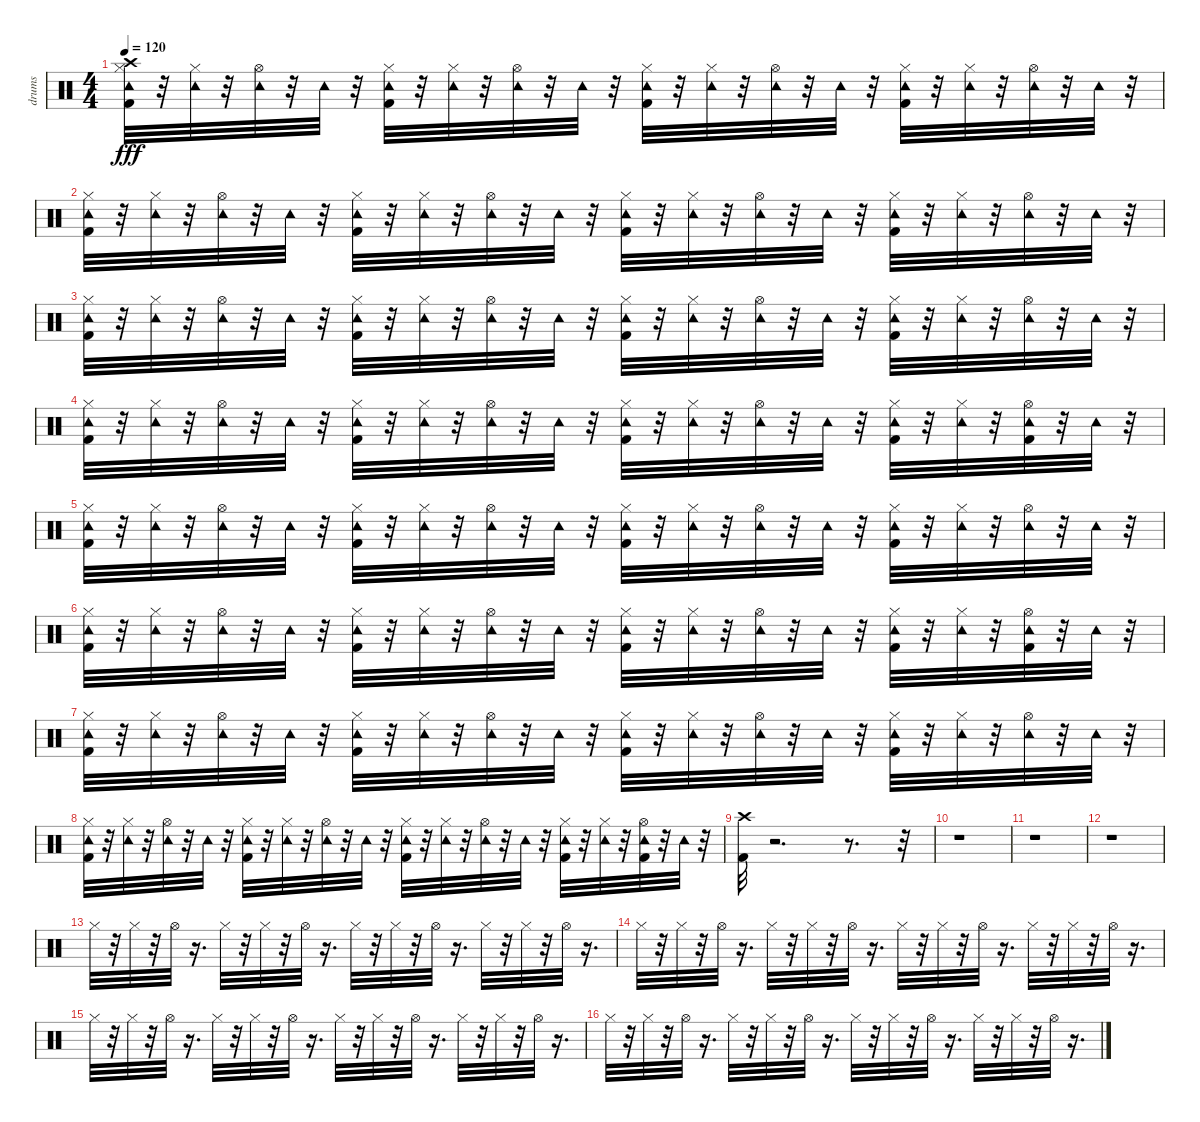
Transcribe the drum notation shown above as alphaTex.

\track ("drums" "drums") {instrument percussion}
\staff {score}
\articulation defaults
\ts (4 4)
\tempo 120
\clef neutral
\ks c
("Crash high (hit)" "Kick (hit) 2" "Hi-Hat (closed)" "Tambourine (hit)").32{dy fff} r.32 ("Hi-Hat (closed)" "Tambourine (hit)").32 r.32 ("Hi-Hat (open)" "Tambourine (hit)").32 r.32 "Tambourine (hit)".32 r.32 ("Kick (hit) 2" "Hi-Hat (closed)" "Tambourine (hit)").32 r.32 ("Hi-Hat (closed)" "Tambourine (hit)").32 r.32 ("Hi-Hat (open)" "Tambourine (hit)").32 r.32 "Tambourine (hit)".32 r.32 ("Kick (hit) 2" "Hi-Hat (closed)" "Tambourine (hit)").32 r.32 ("Hi-Hat (closed)" "Tambourine (hit)").32 r.32 ("Hi-Hat (open)" "Tambourine (hit)").32 r.32 "Tambourine (hit)".32 r.32 ("Kick (hit) 2" "Hi-Hat (closed)" "Tambourine (hit)").32 r.32 ("Hi-Hat (closed)" "Tambourine (hit)").32 r.32 ("Hi-Hat (open)" "Tambourine (hit)").32 r.32 "Tambourine (hit)".32 r.32 |
("Kick (hit) 2" "Hi-Hat (closed)" "Tambourine (hit)").32 r.32 ("Hi-Hat (closed)" "Tambourine (hit)").32 r.32 ("Hi-Hat (open)" "Tambourine (hit)").32 r.32 "Tambourine (hit)".32 r.32 ("Kick (hit) 2" "Hi-Hat (closed)" "Tambourine (hit)").32 r.32 ("Hi-Hat (closed)" "Tambourine (hit)").32 r.32 ("Hi-Hat (open)" "Tambourine (hit)").32 r.32 "Tambourine (hit)".32 r.32 ("Kick (hit) 2" "Hi-Hat (closed)" "Tambourine (hit)").32 r.32 ("Hi-Hat (closed)" "Tambourine (hit)").32 r.32 ("Hi-Hat (open)" "Tambourine (hit)").32 r.32 "Tambourine (hit)".32 r.32 ("Kick (hit) 2" "Hi-Hat (closed)" "Tambourine (hit)").32 r.32 ("Hi-Hat (closed)" "Tambourine (hit)").32 r.32 ("Hi-Hat (open)" "Tambourine (hit)").32 r.32 "Tambourine (hit)".32 r.32 |
("Kick (hit) 2" "Hi-Hat (closed)" "Tambourine (hit)").32 r.32 ("Hi-Hat (closed)" "Tambourine (hit)").32 r.32 ("Hi-Hat (open)" "Tambourine (hit)").32 r.32 "Tambourine (hit)".32 r.32 ("Kick (hit) 2" "Hi-Hat (closed)" "Tambourine (hit)").32 r.32 ("Hi-Hat (closed)" "Tambourine (hit)").32 r.32 ("Hi-Hat (open)" "Tambourine (hit)").32 r.32 "Tambourine (hit)".32 r.32 ("Kick (hit) 2" "Hi-Hat (closed)" "Tambourine (hit)").32 r.32 ("Hi-Hat (closed)" "Tambourine (hit)").32 r.32 ("Hi-Hat (open)" "Tambourine (hit)").32 r.32 "Tambourine (hit)".32 r.32 ("Kick (hit) 2" "Hi-Hat (closed)" "Tambourine (hit)").32 r.32 ("Hi-Hat (closed)" "Tambourine (hit)").32 r.32 ("Hi-Hat (open)" "Tambourine (hit)").32 r.32 "Tambourine (hit)".32 r.32 |
("Kick (hit) 2" "Hi-Hat (closed)" "Tambourine (hit)").32 r.32 ("Hi-Hat (closed)" "Tambourine (hit)").32 r.32 ("Hi-Hat (open)" "Tambourine (hit)").32 r.32 "Tambourine (hit)".32 r.32 ("Kick (hit) 2" "Hi-Hat (closed)" "Tambourine (hit)").32 r.32 ("Hi-Hat (closed)" "Tambourine (hit)").32 r.32 ("Hi-Hat (open)" "Tambourine (hit)").32 r.32 "Tambourine (hit)".32 r.32 ("Kick (hit) 2" "Hi-Hat (closed)" "Tambourine (hit)").32 r.32 ("Hi-Hat (closed)" "Tambourine (hit)").32 r.32 ("Hi-Hat (open)" "Tambourine (hit)").32 r.32 "Tambourine (hit)".32 r.32 ("Kick (hit) 2" "Hi-Hat (closed)" "Tambourine (hit)").32 r.32 ("Hi-Hat (closed)" "Tambourine (hit)").32 r.32 ("Kick (hit) 2" "Hi-Hat (open)" "Tambourine (hit)").32 r.32 "Tambourine (hit)".32 r.32 |
("Kick (hit) 2" "Hi-Hat (closed)" "Tambourine (hit)").32 r.32 ("Hi-Hat (closed)" "Tambourine (hit)").32 r.32 ("Hi-Hat (open)" "Tambourine (hit)").32 r.32 "Tambourine (hit)".32 r.32 ("Kick (hit) 2" "Hi-Hat (closed)" "Tambourine (hit)").32 r.32 ("Hi-Hat (closed)" "Tambourine (hit)").32 r.32 ("Hi-Hat (open)" "Tambourine (hit)").32 r.32 "Tambourine (hit)".32 r.32 ("Kick (hit) 2" "Hi-Hat (closed)" "Tambourine (hit)").32 r.32 ("Hi-Hat (closed)" "Tambourine (hit)").32 r.32 ("Hi-Hat (open)" "Tambourine (hit)").32 r.32 "Tambourine (hit)".32 r.32 ("Kick (hit) 2" "Hi-Hat (closed)" "Tambourine (hit)").32 r.32 ("Hi-Hat (closed)" "Tambourine (hit)").32 r.32 ("Hi-Hat (open)" "Tambourine (hit)").32 r.32 "Tambourine (hit)".32 r.32 |
("Kick (hit) 2" "Hi-Hat (closed)" "Tambourine (hit)").32 r.32 ("Hi-Hat (closed)" "Tambourine (hit)").32 r.32 ("Hi-Hat (open)" "Tambourine (hit)").32 r.32 "Tambourine (hit)".32 r.32 ("Kick (hit) 2" "Hi-Hat (closed)" "Tambourine (hit)").32 r.32 ("Hi-Hat (closed)" "Tambourine (hit)").32 r.32 ("Hi-Hat (open)" "Tambourine (hit)").32 r.32 "Tambourine (hit)".32 r.32 ("Kick (hit) 2" "Hi-Hat (closed)" "Tambourine (hit)").32 r.32 ("Hi-Hat (closed)" "Tambourine (hit)").32 r.32 ("Hi-Hat (open)" "Tambourine (hit)").32 r.32 "Tambourine (hit)".32 r.32 ("Kick (hit) 2" "Hi-Hat (closed)" "Tambourine (hit)").32 r.32 ("Hi-Hat (closed)" "Tambourine (hit)").32 r.32 ("Kick (hit) 2" "Hi-Hat (open)" "Tambourine (hit)").32 r.32 "Tambourine (hit)".32 r.32 |
("Kick (hit) 2" "Hi-Hat (closed)" "Tambourine (hit)").32 r.32 ("Hi-Hat (closed)" "Tambourine (hit)").32 r.32 ("Hi-Hat (open)" "Tambourine (hit)").32 r.32 "Tambourine (hit)".32 r.32 ("Kick (hit) 2" "Hi-Hat (closed)" "Tambourine (hit)").32 r.32 ("Hi-Hat (closed)" "Tambourine (hit)").32 r.32 ("Hi-Hat (open)" "Tambourine (hit)").32 r.32 "Tambourine (hit)".32 r.32 ("Kick (hit) 2" "Hi-Hat (closed)" "Tambourine (hit)").32 r.32 ("Hi-Hat (closed)" "Tambourine (hit)").32 r.32 ("Hi-Hat (open)" "Tambourine (hit)").32 r.32 "Tambourine (hit)".32 r.32 ("Kick (hit) 2" "Hi-Hat (closed)" "Tambourine (hit)").32 r.32 ("Hi-Hat (closed)" "Tambourine (hit)").32 r.32 ("Hi-Hat (open)" "Tambourine (hit)").32 r.32 "Tambourine (hit)".32 r.32 |
("Kick (hit) 2" "Hi-Hat (closed)" "Tambourine (hit)").32 r.32 ("Hi-Hat (closed)" "Tambourine (hit)").32 r.32 ("Hi-Hat (open)" "Tambourine (hit)").32 r.32 "Tambourine (hit)".32 r.32 ("Kick (hit) 2" "Hi-Hat (closed)" "Tambourine (hit)").32 r.32 ("Hi-Hat (closed)" "Tambourine (hit)").32 r.32 ("Hi-Hat (open)" "Tambourine (hit)").32 r.32 "Tambourine (hit)".32 r.32 ("Kick (hit) 2" "Hi-Hat (closed)" "Tambourine (hit)").32 r.32 ("Hi-Hat (closed)" "Tambourine (hit)").32 r.32 ("Hi-Hat (open)" "Tambourine (hit)").32 r.32 "Tambourine (hit)".32 r.32 ("Kick (hit) 2" "Hi-Hat (closed)" "Tambourine (hit)").32 r.32 ("Hi-Hat (closed)" "Tambourine (hit)").32 r.32 ("Kick (hit) 2" "Hi-Hat (open)" "Tambourine (hit)").32 r.32 "Tambourine (hit)".32 r.32 |
("Crash high (hit)" "Kick (hit) 2").32 r.2{d} r.8{d} r.32 |
r.1 |
r.1 |
r.1 |
"Hi-Hat (closed)".32 r.32 "Hi-Hat (closed)".32 r.32 "Hi-Hat (open)".32 r.16{d} "Hi-Hat (closed)".32 r.32 "Hi-Hat (closed)".32 r.32 "Hi-Hat (open)".32 r.16{d} "Hi-Hat (closed)".32 r.32 "Hi-Hat (closed)".32 r.32 "Hi-Hat (open)".32 r.16{d} "Hi-Hat (closed)".32 r.32 "Hi-Hat (closed)".32 r.32 "Hi-Hat (open)".32 r.16{d} |
"Hi-Hat (closed)".32 r.32 "Hi-Hat (closed)".32 r.32 "Hi-Hat (open)".32 r.16{d} "Hi-Hat (closed)".32 r.32 "Hi-Hat (closed)".32 r.32 "Hi-Hat (open)".32 r.16{d} "Hi-Hat (closed)".32 r.32 "Hi-Hat (closed)".32 r.32 "Hi-Hat (open)".32 r.16{d} "Hi-Hat (closed)".32 r.32 "Hi-Hat (closed)".32 r.32 "Hi-Hat (open)".32 r.16{d} |
"Hi-Hat (closed)".32 r.32 "Hi-Hat (closed)".32 r.32 "Hi-Hat (open)".32 r.16{d} "Hi-Hat (closed)".32 r.32 "Hi-Hat (closed)".32 r.32 "Hi-Hat (open)".32 r.16{d} "Hi-Hat (closed)".32 r.32 "Hi-Hat (closed)".32 r.32 "Hi-Hat (open)".32 r.16{d} "Hi-Hat (closed)".32 r.32 "Hi-Hat (closed)".32 r.32 "Hi-Hat (open)".32 r.16{d} |
"Hi-Hat (closed)".32 r.32 "Hi-Hat (closed)".32 r.32 "Hi-Hat (open)".32 r.16{d} "Hi-Hat (closed)".32 r.32 "Hi-Hat (closed)".32 r.32 "Hi-Hat (open)".32 r.16{d} "Hi-Hat (closed)".32 r.32 "Hi-Hat (closed)".32 r.32 "Hi-Hat (open)".32 r.16{d} "Hi-Hat (closed)".32 r.32 "Hi-Hat (closed)".32 r.32 "Hi-Hat (open)".32 r.16{d}
